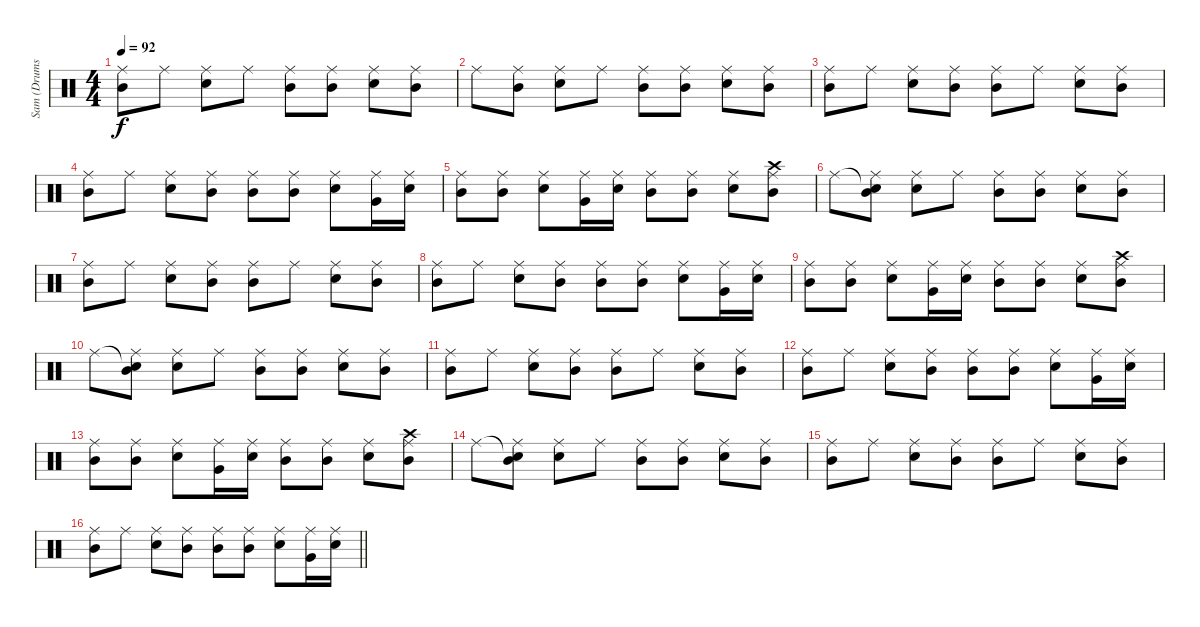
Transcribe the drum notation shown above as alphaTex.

\track ("Sam (Drums)" "Sam (Drums") {instrument percussion}
\staff {score}
\articulation defaults
\ts (4 4)
\tempo 92
\clef neutral
\ks c
("Mid Tom (hit)" "Ride (middle)").8{dy f} "Ride (middle)".8 ("Electric Snare (hit)" "Ride (middle)").8 "Ride (middle)".8 ("Mid Tom (hit)" "Ride (middle)").8 ("Mid Tom (hit)" "Ride (middle)").8 ("Electric Snare (hit)" "Ride (middle)").8 ("Mid Tom (hit)" "Ride (middle)").8 |
"Ride (middle)".8 ("Mid Tom (hit)" "Ride (middle)").8 ("Electric Snare (hit)" "Ride (middle)").8 "Ride (middle)".8 ("Mid Tom (hit)" "Ride (middle)").8 ("Mid Tom (hit)" "Ride (middle)").8 ("Electric Snare (hit)" "Ride (middle)").8 ("Mid Tom (hit)" "Ride (middle)").8 |
("Mid Tom (hit)" "Ride (middle)").8 "Ride (middle)".8 ("Electric Snare (hit)" "Ride (middle)").8 ("Mid Tom (hit)" "Ride (middle)").8 ("Mid Tom (hit)" "Ride (middle)").8 "Ride (middle)".8 ("Electric Snare (hit)" "Ride (middle)").8 ("Mid Tom (hit)" "Ride (middle)").8 |
("Mid Tom (hit)" "Ride (middle)").8 "Ride (middle)".8 ("Electric Snare (hit)" "Ride (middle)").8 ("Mid Tom (hit)" "Ride (middle)").8 ("Mid Tom (hit)" "Ride (middle)").8 ("Mid Tom (hit)" "Ride (middle)").8 ("Electric Snare (hit)" "Ride (middle)").8 ("Very Low Tom (hit)" "Ride (middle)").16 ("Electric Snare (hit)" "Ride (middle)").16 |
("Mid Tom (hit)" "Ride (middle)").8 ("Mid Tom (hit)" "Ride (middle)").8 ("Electric Snare (hit)" "Ride (middle)").8 ("Very Low Tom (hit)" "Ride (middle)").16 ("Electric Snare (hit)" "Ride (middle)").16 ("Mid Tom (hit)" "Ride (middle)").8 ("Mid Tom (hit)" "Ride (middle)").8 ("Electric Snare (hit)" "Ride (middle)").8 ("Crash high (hit)" "Mid Tom (hit)" "Ride (middle)").8 |
"Ride (middle)".8 ("Snare (hit)"{t} "Mid Tom (hit)" "Ride (middle)").8 ("Electric Snare (hit)" "Ride (middle)").8 "Ride (middle)".8 ("Mid Tom (hit)" "Ride (middle)").8 ("Mid Tom (hit)" "Ride (middle)").8 ("Electric Snare (hit)" "Ride (middle)").8 ("Mid Tom (hit)" "Ride (middle)").8 |
("Mid Tom (hit)" "Ride (middle)").8 "Ride (middle)".8 ("Electric Snare (hit)" "Ride (middle)").8 ("Mid Tom (hit)" "Ride (middle)").8 ("Mid Tom (hit)" "Ride (middle)").8 "Ride (middle)".8 ("Electric Snare (hit)" "Ride (middle)").8 ("Mid Tom (hit)" "Ride (middle)").8 |
("Mid Tom (hit)" "Ride (middle)").8 "Ride (middle)".8 ("Electric Snare (hit)" "Ride (middle)").8 ("Mid Tom (hit)" "Ride (middle)").8 ("Mid Tom (hit)" "Ride (middle)").8 ("Mid Tom (hit)" "Ride (middle)").8 ("Electric Snare (hit)" "Ride (middle)").8 ("Very Low Tom (hit)" "Ride (middle)").16 ("Electric Snare (hit)" "Ride (middle)").16 |
("Mid Tom (hit)" "Ride (middle)").8 ("Mid Tom (hit)" "Ride (middle)").8 ("Electric Snare (hit)" "Ride (middle)").8 ("Very Low Tom (hit)" "Ride (middle)").16 ("Electric Snare (hit)" "Ride (middle)").16 ("Mid Tom (hit)" "Ride (middle)").8 ("Mid Tom (hit)" "Ride (middle)").8 ("Electric Snare (hit)" "Ride (middle)").8 ("Crash high (hit)" "Mid Tom (hit)" "Ride (middle)").8 |
"Ride (middle)".8 ("Snare (hit)"{t} "Mid Tom (hit)" "Ride (middle)").8 ("Electric Snare (hit)" "Ride (middle)").8 "Ride (middle)".8 ("Mid Tom (hit)" "Ride (middle)").8 ("Mid Tom (hit)" "Ride (middle)").8 ("Electric Snare (hit)" "Ride (middle)").8 ("Mid Tom (hit)" "Ride (middle)").8 |
("Mid Tom (hit)" "Ride (middle)").8 "Ride (middle)".8 ("Electric Snare (hit)" "Ride (middle)").8 ("Mid Tom (hit)" "Ride (middle)").8 ("Mid Tom (hit)" "Ride (middle)").8 "Ride (middle)".8 ("Electric Snare (hit)" "Ride (middle)").8 ("Mid Tom (hit)" "Ride (middle)").8 |
("Mid Tom (hit)" "Ride (middle)").8 "Ride (middle)".8 ("Electric Snare (hit)" "Ride (middle)").8 ("Mid Tom (hit)" "Ride (middle)").8 ("Mid Tom (hit)" "Ride (middle)").8 ("Mid Tom (hit)" "Ride (middle)").8 ("Electric Snare (hit)" "Ride (middle)").8 ("Very Low Tom (hit)" "Ride (middle)").16 ("Electric Snare (hit)" "Ride (middle)").16 |
("Mid Tom (hit)" "Ride (middle)").8 ("Mid Tom (hit)" "Ride (middle)").8 ("Electric Snare (hit)" "Ride (middle)").8 ("Very Low Tom (hit)" "Ride (middle)").16 ("Electric Snare (hit)" "Ride (middle)").16 ("Mid Tom (hit)" "Ride (middle)").8 ("Mid Tom (hit)" "Ride (middle)").8 ("Electric Snare (hit)" "Ride (middle)").8 ("Crash high (hit)" "Mid Tom (hit)" "Ride (middle)").8 |
"Ride (middle)".8 ("Snare (hit)"{t} "Mid Tom (hit)" "Ride (middle)").8 ("Electric Snare (hit)" "Ride (middle)").8 "Ride (middle)".8 ("Mid Tom (hit)" "Ride (middle)").8 ("Mid Tom (hit)" "Ride (middle)").8 ("Electric Snare (hit)" "Ride (middle)").8 ("Mid Tom (hit)" "Ride (middle)").8 |
("Mid Tom (hit)" "Ride (middle)").8 "Ride (middle)".8 ("Electric Snare (hit)" "Ride (middle)").8 ("Mid Tom (hit)" "Ride (middle)").8 ("Mid Tom (hit)" "Ride (middle)").8 "Ride (middle)".8 ("Electric Snare (hit)" "Ride (middle)").8 ("Mid Tom (hit)" "Ride (middle)").8 |
\barLineRight lightlight
("Mid Tom (hit)" "Ride (middle)").8 "Ride (middle)".8 ("Electric Snare (hit)" "Ride (middle)").8 ("Mid Tom (hit)" "Ride (middle)").8 ("Mid Tom (hit)" "Ride (middle)").8 ("Mid Tom (hit)" "Ride (middle)").8 ("Electric Snare (hit)" "Ride (middle)").8 ("Very Low Tom (hit)" "Ride (middle)").16 ("Electric Snare (hit)" "Ride (middle)").16
